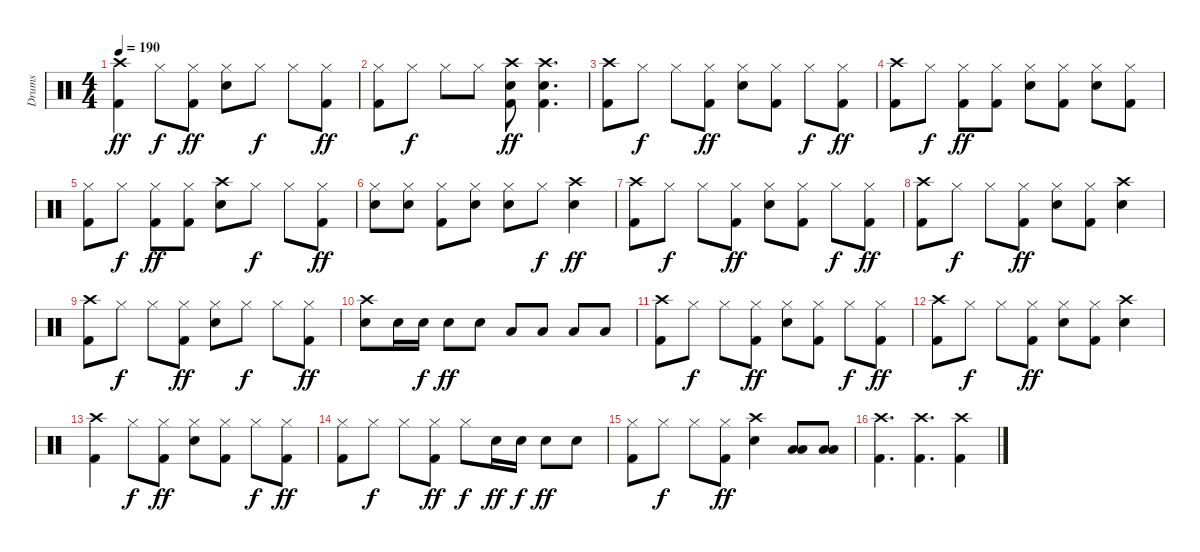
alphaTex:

\track ("Drums" "Drums") {instrument percussion}
\staff {score}
\articulation defaults
\ts (4 4)
\tempo 190
\clef neutral
\ks c
("Crash high (hit)" "Kick (hit) 2").4{dy ff} "Hi-Hat (closed)".8{dy f} ("Hi-Hat (closed)" "Kick (hit) 2").8{dy ff} ("Hi-Hat (closed)" "Snare (hit) 2").8 "Hi-Hat (closed)".8{dy f} "Hi-Hat (closed)".8 ("Hi-Hat (closed)" "Kick (hit) 2").8{dy ff} |
("Hi-Hat (closed)" "Kick (hit) 2").8 "Hi-Hat (closed)".8{dy f} "Hi-Hat (closed)".8 "Hi-Hat (closed)".8 ("Crash high (hit)" "Snare (hit) 2" "Kick (hit) 2").8{dy ff} ("Crash high (hit)" "Snare (hit) 2" "Kick (hit) 2").4{d} |
("Crash high (hit)" "Kick (hit) 2").8 "Hi-Hat (closed)".8{dy f} "Hi-Hat (closed)".8 ("Hi-Hat (closed)" "Kick (hit) 2").8{dy ff} ("Hi-Hat (closed)" "Snare (hit) 2").8 ("Hi-Hat (closed)" "Kick (hit) 2").8 "Hi-Hat (closed)".8{dy f} ("Hi-Hat (closed)" "Kick (hit) 2").8{dy ff} |
("Crash high (hit)" "Kick (hit) 2").8 "Hi-Hat (closed)".8{dy f} ("Hi-Hat (closed)" "Kick (hit) 2").8{dy ff} ("Hi-Hat (closed)" "Kick (hit) 2").8 ("Hi-Hat (closed)" "Snare (hit) 2").8 ("Hi-Hat (closed)" "Kick (hit) 2").8 ("Hi-Hat (closed)" "Snare (hit) 2").8 ("Hi-Hat (closed)" "Kick (hit) 2").8 |
("Hi-Hat (closed)" "Kick (hit) 2").8 "Hi-Hat (closed)".8{dy f} ("Hi-Hat (closed)" "Kick (hit) 2").8{dy ff} ("Hi-Hat (closed)" "Kick (hit) 2").8 ("Crash high (hit)" "Snare (hit) 2").8 "Hi-Hat (closed)".8{dy f} "Hi-Hat (closed)".8 ("Hi-Hat (closed)" "Kick (hit) 2").8{dy ff} |
("Hi-Hat (closed)" "Snare (hit) 2").8 ("Hi-Hat (closed)" "Snare (hit) 2").8 ("Hi-Hat (closed)" "Kick (hit) 2").8 ("Hi-Hat (closed)" "Snare (hit) 2").8 ("Hi-Hat (closed)" "Snare (hit) 2").8 "Hi-Hat (closed)".8{dy f} ("Crash high (hit)" "Snare (hit) 2").4{dy ff} |
("Crash high (hit)" "Kick (hit) 2").8 "Hi-Hat (closed)".8{dy f} "Hi-Hat (closed)".8 ("Hi-Hat (closed)" "Kick (hit) 2").8{dy ff} ("Hi-Hat (closed)" "Snare (hit) 2").8 ("Hi-Hat (closed)" "Kick (hit) 2").8 "Hi-Hat (closed)".8{dy f} ("Hi-Hat (closed)" "Kick (hit) 2").8{dy ff} |
("Crash high (hit)" "Kick (hit) 2").8 "Hi-Hat (closed)".8{dy f} "Hi-Hat (closed)".8 ("Hi-Hat (closed)" "Kick (hit) 2").8{dy ff} ("Hi-Hat (closed)" "Snare (hit) 2").8 ("Hi-Hat (closed)" "Kick (hit) 2").8 ("Crash high (hit)" "Snare (hit) 2").4 |
("Crash high (hit)" "Kick (hit) 2").8 "Hi-Hat (closed)".8{dy f} "Hi-Hat (closed)".8 ("Hi-Hat (closed)" "Kick (hit) 2").8{dy ff} ("Hi-Hat (closed)" "Snare (hit) 2").8 "Hi-Hat (closed)".8{dy f} "Hi-Hat (closed)".8 ("Hi-Hat (closed)" "Kick (hit) 2").8{dy ff} |
("Crash high (hit)" "Snare (hit) 2").8 "Snare (hit) 2".16 "Snare (hit) 2".16{dy f} "Snare (hit) 2".8{dy ff} "Snare (hit) 2".8 "Low Floor Tom (hit)".8 "Low Floor Tom (hit)".8 "Low Floor Tom (hit)".8 "Low Floor Tom (hit)".8 |
("Crash high (hit)" "Kick (hit) 2").8 "Hi-Hat (closed)".8{dy f} "Hi-Hat (closed)".8 ("Hi-Hat (closed)" "Kick (hit) 2").8{dy ff} ("Hi-Hat (closed)" "Snare (hit) 2").8 ("Hi-Hat (closed)" "Kick (hit) 2").8 "Hi-Hat (closed)".8{dy f} ("Hi-Hat (closed)" "Kick (hit) 2").8{dy ff} |
("Crash high (hit)" "Kick (hit) 2").8 "Hi-Hat (closed)".8{dy f} "Hi-Hat (closed)".8 ("Hi-Hat (closed)" "Kick (hit) 2").8{dy ff} ("Hi-Hat (closed)" "Snare (hit) 2").8 ("Hi-Hat (closed)" "Kick (hit) 2").8 ("Crash high (hit)" "Snare (hit) 2").4 |
("Crash high (hit)" "Kick (hit) 2").4 "Hi-Hat (closed)".8{dy f} ("Hi-Hat (closed)" "Kick (hit) 2").8{dy ff} ("Hi-Hat (closed)" "Snare (hit) 2").8 ("Hi-Hat (closed)" "Kick (hit) 2").8 "Hi-Hat (closed)".8{dy f} ("Hi-Hat (closed)" "Kick (hit) 2").8{dy ff} |
("Hi-Hat (closed)" "Kick (hit) 2").8 "Hi-Hat (closed)".8{dy f} "Hi-Hat (closed)".8 ("Hi-Hat (closed)" "Kick (hit) 2").8{dy ff} "Hi-Hat (closed)".8{dy f} "Snare (hit) 2".16{dy ff} "Snare (hit) 2".16{dy f} "Snare (hit) 2".8{dy ff} "Snare (hit) 2".8 |
("Hi-Hat (closed)" "Kick (hit) 2").8 "Hi-Hat (closed)".8{dy f} "Hi-Hat (closed)".8 ("Hi-Hat (closed)" "Kick (hit) 2").8{dy ff} ("Crash high (hit)" "Snare (hit) 2").4 ("Low Tom (hit)" "Low Floor Tom (hit)").8 ("Low Tom (hit)" "Low Floor Tom (hit)").8 |
("Crash high (hit)" "Kick (hit) 2").4{d} ("Crash high (hit)" "Kick (hit) 2").4{d} ("Crash high (hit)" "Kick (hit) 2").4
